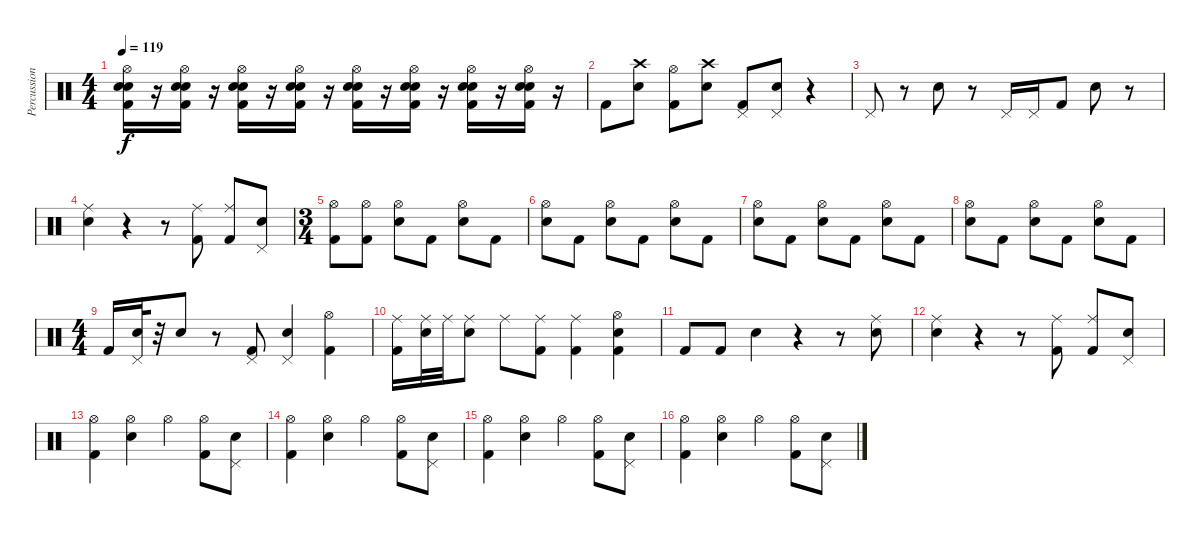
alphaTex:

\track ("Percussion" "Percussion") {instrument percussion}
\staff {score}
\articulation defaults
\ts (4 4)
\tempo 119
\clef neutral
\ks c
("Hi-Hat (open)" "Snare (hit) 2" "Electric Snare (hit)" "Kick (hit) 2").16{dy f} r.16 ("Hi-Hat (open)" "Electric Snare (hit)" "Snare (hit) 2" "Kick (hit) 2").16 r.16 ("Hi-Hat (open)" "Electric Snare (hit)" "Snare (hit) 2" "Kick (hit) 2").16 r.16 ("Hi-Hat (open)" "Electric Snare (hit)" "Snare (hit) 2" "Kick (hit) 2").16 r.16 ("Hi-Hat (open)" "Electric Snare (hit)" "Snare (hit) 2" "Kick (hit) 2").16 r.16 ("Hi-Hat (open)" "Electric Snare (hit)" "Snare (hit) 2" "Kick (hit) 2").16 r.16 ("Hi-Hat (open)" "Electric Snare (hit)" "Snare (hit) 2" "Kick (hit) 2").16 r.16 ("Hi-Hat (open)" "Electric Snare (hit)" "Snare (hit) 2" "Kick (hit) 2").16 r.16 |
"Kick (hit) 2".8 ("Crash high (hit)" "Electric Snare (hit)").8 ("Hi-Hat (open)" "Kick (hit) 2").8 ("Crash high (hit)" "Electric Snare (hit)").8 ("Pedal Hi-Hat (hit)" "Kick (hit) 2").8 ("Pedal Hi-Hat (hit)" "Electric Snare (hit)").8 r.4 |
"Pedal Hi-Hat (hit)".8 r.8 "Electric Snare (hit)".8 r.8 "Pedal Hi-Hat (hit)".16 "Pedal Hi-Hat (hit)".16 "Kick (hit) 2".8 "Electric Snare (hit)".8 r.8 |
("Ride (middle)" "Electric Snare (hit)").4 r.4 r.8 ("Ride (middle)" "Kick (hit) 2").8 ("Ride (middle)" "Kick (hit) 2").8 ("Pedal Hi-Hat (hit)" "Electric Snare (hit)").8 |
\ts (3 4)
("Hi-Hat (open)" "Kick (hit) 2").8 ("Hi-Hat (open)" "Kick (hit) 2").8 ("Hi-Hat (open)" "Electric Snare (hit)").8 "Kick (hit) 2".8 ("Hi-Hat (open)" "Electric Snare (hit)").8 "Kick (hit) 2".8 |
("Hi-Hat (open)" "Electric Snare (hit)").8 "Kick (hit) 2".8 ("Hi-Hat (open)" "Electric Snare (hit)").8 "Kick (hit) 2".8 ("Hi-Hat (open)" "Electric Snare (hit)").8 "Kick (hit) 2".8 |
("Hi-Hat (open)" "Electric Snare (hit)").8 "Kick (hit) 2".8 ("Hi-Hat (open)" "Electric Snare (hit)").8 "Kick (hit) 2".8 ("Hi-Hat (open)" "Electric Snare (hit)").8 "Kick (hit) 2".8 |
("Hi-Hat (open)" "Electric Snare (hit)").8 "Kick (hit) 2".8 ("Hi-Hat (open)" "Electric Snare (hit)").8 "Kick (hit) 2".8 ("Hi-Hat (open)" "Electric Snare (hit)").8 "Kick (hit) 2".8 |
\ts (4 4)
"Kick (hit) 2".16 ("Electric Snare (hit)" "Pedal Hi-Hat (hit)").32 r.32 "Electric Snare (hit)".8 r.8 ("Kick (hit) 2" "Pedal Hi-Hat (hit)").8 ("Electric Snare (hit)" "Pedal Hi-Hat (hit)").4 ("Kick (hit) 2" "Hi-Hat (open)").4 |
("Kick (hit) 2" "Ride (middle)").16 ("Electric Snare (hit)" "Ride (middle)").32 "Ride (middle)".32 ("Electric Snare (hit)" "Ride (middle)").8 "Ride (middle)".8 ("Kick (hit) 2" "Ride (middle)").8 ("Kick (hit) 2" "Ride (middle)").4 ("Kick (hit) 2" "Electric Snare (hit)" "Hi-Hat (open)").4 |
"Kick (hit) 2".8 "Kick (hit) 2".8 "Electric Snare (hit)".4 r.4 r.8 ("Ride (middle)" "Electric Snare (hit)").8 |
("Ride (middle)" "Electric Snare (hit)").4 r.4 r.8 ("Ride (middle)" "Kick (hit) 2").8 ("Ride (middle)" "Kick (hit) 2").8 ("Pedal Hi-Hat (hit)" "Electric Snare (hit)").8 |
("Hi-Hat (open)" "Kick (hit) 2").4 ("Hi-Hat (open)" "Electric Snare (hit)").4 "Hi-Hat (open)".4 ("Hi-Hat (open)" "Kick (hit) 2").8 ("Pedal Hi-Hat (hit)" "Electric Snare (hit)").8 |
("Hi-Hat (open)" "Kick (hit) 2").4 ("Hi-Hat (open)" "Electric Snare (hit)").4 "Hi-Hat (open)".4 ("Hi-Hat (open)" "Kick (hit) 2").8 ("Pedal Hi-Hat (hit)" "Electric Snare (hit)").8 |
("Hi-Hat (open)" "Kick (hit) 2").4 ("Hi-Hat (open)" "Electric Snare (hit)").4 "Hi-Hat (open)".4 ("Hi-Hat (open)" "Kick (hit) 2").8 ("Pedal Hi-Hat (hit)" "Electric Snare (hit)").8 |
("Hi-Hat (open)" "Kick (hit) 2").4 ("Hi-Hat (open)" "Electric Snare (hit)").4 "Hi-Hat (open)".4 ("Hi-Hat (open)" "Kick (hit) 2").8 ("Pedal Hi-Hat (hit)" "Electric Snare (hit)").8
